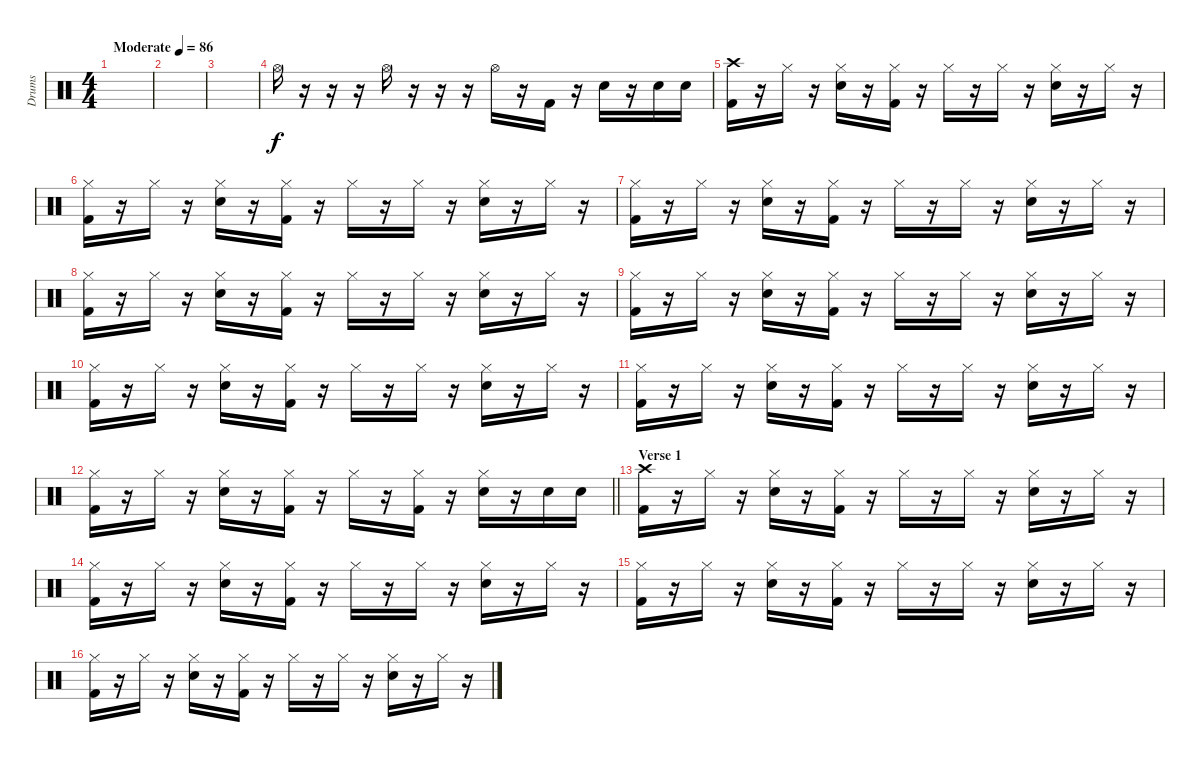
\track ("Drums" "Drums") {instrument percussion}
\staff {score}
\articulation defaults
\ts (4 4)
\tempo (86 "Moderate")
\clef neutral
\ks c
|
|
|
"Hi-Hat (open)".16 r.16 r.16 r.16 "Hi-Hat (open)".16 r.16 r.16 r.16 "Hi-Hat (open)".16 r.16 "Kick (hit) 2".16 r.16 "Electric Snare (hit)".16 r.16 "Electric Snare (hit)".16 "Electric Snare (hit)".16 |
("Crash high (hit)" "Kick (hit) 2").16 r.16 "Hi-Hat (closed)".16 r.16 ("Hi-Hat (closed)" "Electric Snare (hit)").16 r.16 ("Hi-Hat (closed)" "Kick (hit) 2").16 r.16 "Hi-Hat (closed)".16 r.16 "Hi-Hat (closed)".16 r.16 ("Hi-Hat (closed)" "Electric Snare (hit)").16 r.16 "Hi-Hat (closed)".16 r.16 |
("Hi-Hat (closed)" "Kick (hit) 2").16 r.16 "Hi-Hat (closed)".16 r.16 ("Hi-Hat (closed)" "Electric Snare (hit)").16 r.16 ("Hi-Hat (closed)" "Kick (hit) 2").16 r.16 "Hi-Hat (closed)".16 r.16 "Hi-Hat (closed)".16 r.16 ("Hi-Hat (closed)" "Electric Snare (hit)").16 r.16 "Hi-Hat (closed)".16 r.16 |
("Hi-Hat (closed)" "Kick (hit) 2").16 r.16 "Hi-Hat (closed)".16 r.16 ("Hi-Hat (closed)" "Electric Snare (hit)").16 r.16 ("Hi-Hat (closed)" "Kick (hit) 2").16 r.16 "Hi-Hat (closed)".16 r.16 "Hi-Hat (closed)".16 r.16 ("Hi-Hat (closed)" "Electric Snare (hit)").16 r.16 "Hi-Hat (closed)".16 r.16 |
("Hi-Hat (closed)" "Kick (hit) 2").16 r.16 "Hi-Hat (closed)".16 r.16 ("Hi-Hat (closed)" "Electric Snare (hit)").16 r.16 ("Hi-Hat (closed)" "Kick (hit) 2").16 r.16 "Hi-Hat (closed)".16 r.16 "Hi-Hat (closed)".16 r.16 ("Hi-Hat (closed)" "Electric Snare (hit)").16 r.16 "Hi-Hat (closed)".16 r.16 |
("Hi-Hat (closed)" "Kick (hit) 2").16 r.16 "Hi-Hat (closed)".16 r.16 ("Hi-Hat (closed)" "Electric Snare (hit)").16 r.16 ("Hi-Hat (closed)" "Kick (hit) 2").16 r.16 "Hi-Hat (closed)".16 r.16 "Hi-Hat (closed)".16 r.16 ("Hi-Hat (closed)" "Electric Snare (hit)").16 r.16 "Hi-Hat (closed)".16 r.16 |
("Hi-Hat (closed)" "Kick (hit) 2").16 r.16 "Hi-Hat (closed)".16 r.16 ("Hi-Hat (closed)" "Electric Snare (hit)").16 r.16 ("Hi-Hat (closed)" "Kick (hit) 2").16 r.16 "Hi-Hat (closed)".16 r.16 "Hi-Hat (closed)".16 r.16 ("Hi-Hat (closed)" "Electric Snare (hit)").16 r.16 "Hi-Hat (closed)".16 r.16 |
("Hi-Hat (closed)" "Kick (hit) 2").16 r.16 "Hi-Hat (closed)".16 r.16 ("Hi-Hat (closed)" "Electric Snare (hit)").16 r.16 ("Hi-Hat (closed)" "Kick (hit) 2").16 r.16 "Hi-Hat (closed)".16 r.16 "Hi-Hat (closed)".16 r.16 ("Hi-Hat (closed)" "Electric Snare (hit)").16 r.16 "Hi-Hat (closed)".16 r.16 |
\barLineRight lightlight
("Hi-Hat (closed)" "Kick (hit) 2").16 r.16 "Hi-Hat (closed)".16 r.16 ("Hi-Hat (closed)" "Electric Snare (hit)").16 r.16 ("Hi-Hat (closed)" "Kick (hit) 2").16 r.16 "Hi-Hat (closed)".16 r.16 ("Hi-Hat (closed)" "Kick (hit) 2").16 r.16 ("Hi-Hat (closed)" "Electric Snare (hit)").16 r.16 "Electric Snare (hit)".16 "Electric Snare (hit)".16 |
\section ("" "Verse 1")
("Crash high (hit)" "Kick (hit) 2").16 r.16 "Hi-Hat (closed)".16 r.16 ("Hi-Hat (closed)" "Electric Snare (hit)").16 r.16 ("Hi-Hat (closed)" "Kick (hit) 2").16 r.16 "Hi-Hat (closed)".16 r.16 "Hi-Hat (closed)".16 r.16 ("Hi-Hat (closed)" "Electric Snare (hit)").16 r.16 "Hi-Hat (closed)".16 r.16 |
("Hi-Hat (closed)" "Kick (hit) 2").16 r.16 "Hi-Hat (closed)".16 r.16 ("Hi-Hat (closed)" "Electric Snare (hit)").16 r.16 ("Hi-Hat (closed)" "Kick (hit) 2").16 r.16 "Hi-Hat (closed)".16 r.16 "Hi-Hat (closed)".16 r.16 ("Hi-Hat (closed)" "Electric Snare (hit)").16 r.16 "Hi-Hat (closed)".16 r.16 |
("Hi-Hat (closed)" "Kick (hit) 2").16 r.16 "Hi-Hat (closed)".16 r.16 ("Hi-Hat (closed)" "Electric Snare (hit)").16 r.16 ("Hi-Hat (closed)" "Kick (hit) 2").16 r.16 "Hi-Hat (closed)".16 r.16 "Hi-Hat (closed)".16 r.16 ("Hi-Hat (closed)" "Electric Snare (hit)").16 r.16 "Hi-Hat (closed)".16 r.16 |
("Hi-Hat (closed)" "Kick (hit) 2").16 r.16 "Hi-Hat (closed)".16 r.16 ("Hi-Hat (closed)" "Electric Snare (hit)").16 r.16 ("Hi-Hat (closed)" "Kick (hit) 2").16 r.16 "Hi-Hat (closed)".16 r.16 "Hi-Hat (closed)".16 r.16 ("Hi-Hat (closed)" "Electric Snare (hit)").16 r.16 "Hi-Hat (closed)".16 r.16
